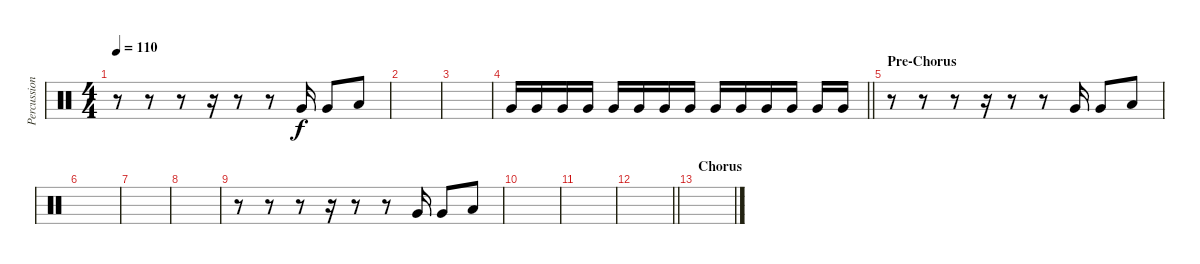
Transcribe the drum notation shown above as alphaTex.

\track ("Percussion Toms" "Percussion") {instrument percussion}
\staff {score}
\articulation defaults
\ts (4 4)
\tempo 110
\clef neutral
\ks c
r.8{dy f} r.8 r.8 r.16 r.8 r.8 "Very Low Tom (hit)".16 "Very Low Tom (hit)".8 "Low Floor Tom (hit)".8 |
|
|
\barLineRight lightlight "Very Low Tom (hit)".16 "Very Low Tom (hit)".16 "Very Low Tom (hit)".16 "Very Low Tom (hit)".16 "Very Low Tom (hit)".16 "Very Low Tom (hit)".16 "Very Low Tom (hit)".16 "Very Low Tom (hit)".16 "Very Low Tom (hit)".16 "Very Low Tom (hit)".16 "Very Low Tom (hit)".16 "Very Low Tom (hit)".16 "Very Low Tom (hit)".16 "Very Low Tom (hit)".16
|
\section ("" "Pre-Chorus")
r.8 r.8 r.8 r.16 r.8 r.8 "Very Low Tom (hit)".16 "Very Low Tom (hit)".8 "Low Floor Tom (hit)".8 |
|
|
|
r.8 r.8 r.8 r.16 r.8 r.8 "Very Low Tom (hit)".16 "Very Low Tom (hit)".8 "Low Floor Tom (hit)".8 |
|
|
\barLineRight lightlight
|
\section ("" "Chorus")
